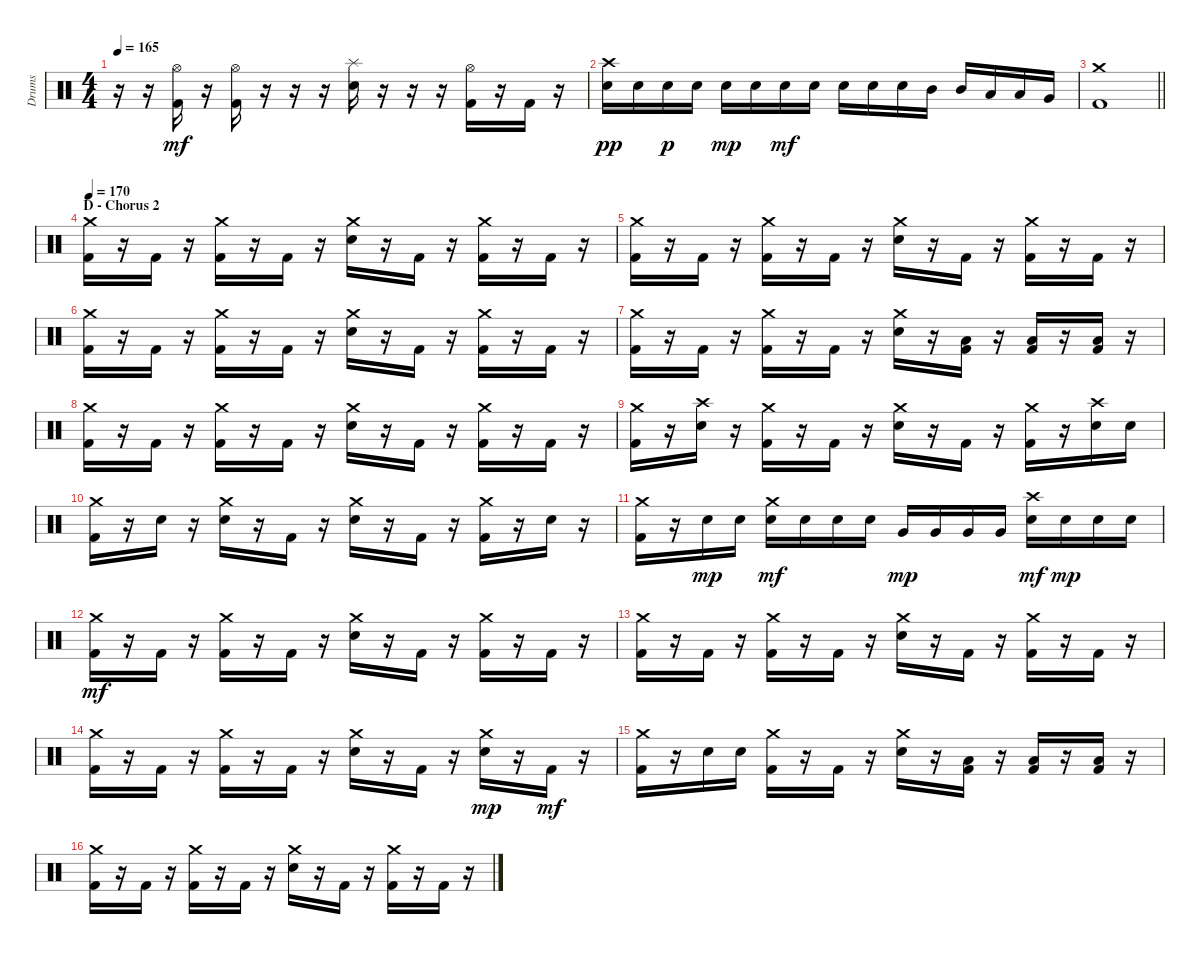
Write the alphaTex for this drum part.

\track ("Drums" "Drums") {instrument percussion}
\staff {score}
\articulation defaults
\ts (4 4)
\tempo 165
\clef neutral
\ks c
r.16{dy mf} r.16 ("Hi-Hat (open)" "Kick (hit) 2").16 r.16 ("Hi-Hat (open)" "Kick (hit) 2").16 r.16 r.16 r.16 ("Splash (hit)" "Electric Snare (hit)").16 r.16 r.16 r.16 ("Hi-Hat (open)" "Kick (hit) 2").16 r.16 "Kick (hit) 2".16 r.16 |
("Crash high (hit)" "Electric Snare (hit)").16{dy pp} "Electric Snare (hit)".16 "Electric Snare (hit)".16{dy p} "Electric Snare (hit)".16 "Electric Snare (hit)".16{dy mp} "Electric Snare (hit)".16 "Electric Snare (hit)".16{dy mf} "Electric Snare (hit)".16 "Electric Snare (hit)".16 "Electric Snare (hit)".16 "Electric Snare (hit)".16 "Mid Tom (hit)".16 "Mid Tom (hit)".16 "Low Tom (hit)".16 "Low Tom (hit)".16 "Very Low Tom (hit)".16 |
\barLineRight lightlight
("Crash medium (hit)" "Kick (hit) 2").1 |
\section ("" "D - Chorus 2")
\tempo 170
("Crash medium (hit)" "Kick (hit) 2").16 r.16 "Kick (hit) 2".16 r.16 ("Crash medium (hit)" "Kick (hit) 2").16 r.16 "Kick (hit) 2".16 r.16 ("Crash medium (hit)" "Electric Snare (hit)").16 r.16 "Kick (hit) 2".16 r.16 ("Crash medium (hit)" "Kick (hit) 2").16 r.16 "Kick (hit) 2".16 r.16 |
("Crash medium (hit)" "Kick (hit) 2").16 r.16 "Kick (hit) 2".16 r.16 ("Crash medium (hit)" "Kick (hit) 2").16 r.16 "Kick (hit) 2".16 r.16 ("Crash medium (hit)" "Electric Snare (hit)").16 r.16 "Kick (hit) 2".16 r.16 ("Crash medium (hit)" "Kick (hit) 2").16 r.16 "Kick (hit) 2".16 r.16 |
("Crash medium (hit)" "Kick (hit) 2").16 r.16 "Kick (hit) 2".16 r.16 ("Crash medium (hit)" "Kick (hit) 2").16 r.16 "Kick (hit) 2".16 r.16 ("Crash medium (hit)" "Electric Snare (hit)").16 r.16 "Kick (hit) 2".16 r.16 ("Crash medium (hit)" "Kick (hit) 2").16 r.16 "Kick (hit) 2".16 r.16 |
("Crash medium (hit)" "Kick (hit) 2").16 r.16 "Kick (hit) 2".16 r.16 ("Crash medium (hit)" "Kick (hit) 2").16 r.16 "Kick (hit) 2".16 r.16 ("Crash medium (hit)" "Electric Snare (hit)").16 r.16 ("Low Floor Tom (hit)" "Kick (hit) 2").16 r.16 ("Low Floor Tom (hit)" "Kick (hit) 2").16 r.16 ("Low Floor Tom (hit)" "Kick (hit) 2").16 r.16 |
("Crash medium (hit)" "Kick (hit) 2").16 r.16 "Kick (hit) 2".16 r.16 ("Crash medium (hit)" "Kick (hit) 2").16 r.16 "Kick (hit) 2".16 r.16 ("Crash medium (hit)" "Electric Snare (hit)").16 r.16 "Kick (hit) 2".16 r.16 ("Crash medium (hit)" "Kick (hit) 2").16 r.16 "Kick (hit) 2".16 r.16 |
("Crash medium (hit)" "Kick (hit) 2").16 r.16 ("Crash high (hit)" "Electric Snare (hit)").16 r.16 ("Crash medium (hit)" "Kick (hit) 2").16 r.16 "Kick (hit) 2".16 r.16 ("Crash medium (hit)" "Electric Snare (hit)").16 r.16 "Kick (hit) 2".16 r.16 ("Crash medium (hit)" "Kick (hit) 2").16 r.16 ("Crash high (hit)" "Electric Snare (hit)").16 "Electric Snare (hit)".16 |
("Crash medium (hit)" "Kick (hit) 2").16 r.16 "Electric Snare (hit)".16 r.16 ("Crash medium (hit)" "Electric Snare (hit)").16 r.16 "Kick (hit) 2".16 r.16 ("Crash medium (hit)" "Electric Snare (hit)").16 r.16 "Kick (hit) 2".16 r.16 ("Crash medium (hit)" "Kick (hit) 2").16 r.16 "Electric Snare (hit)".16 r.16 |
("Crash medium (hit)" "Kick (hit) 2").16 r.16 "Electric Snare (hit)".16{dy mp} "Electric Snare (hit)".16 ("Crash medium (hit)" "Electric Snare (hit)").16{dy mf} "Electric Snare (hit)".16 "Electric Snare (hit)".16 "Electric Snare (hit)".16 "Very Low Tom (hit)".16{dy mp} "Very Low Tom (hit)".16 "Very Low Tom (hit)".16 "Very Low Tom (hit)".16 ("Crash high (hit)" "Electric Snare (hit)").16{dy mf} "Electric Snare (hit)".16{dy mp} "Electric Snare (hit)".16 "Electric Snare (hit)".16 |
("Crash medium (hit)" "Kick (hit) 2").16{dy mf} r.16 "Kick (hit) 2".16 r.16 ("Crash medium (hit)" "Kick (hit) 2").16 r.16 "Kick (hit) 2".16 r.16 ("Crash medium (hit)" "Electric Snare (hit)").16 r.16 "Kick (hit) 2".16 r.16 ("Crash medium (hit)" "Kick (hit) 2").16 r.16 "Kick (hit) 2".16 r.16 |
("Crash medium (hit)" "Kick (hit) 2").16 r.16 "Kick (hit) 2".16 r.16 ("Crash medium (hit)" "Kick (hit) 2").16 r.16 "Kick (hit) 2".16 r.16 ("Crash medium (hit)" "Electric Snare (hit)").16 r.16 "Kick (hit) 2".16 r.16 ("Crash medium (hit)" "Kick (hit) 2").16 r.16 "Kick (hit) 2".16 r.16 |
("Crash medium (hit)" "Kick (hit) 2").16 r.16 "Kick (hit) 2".16 r.16 ("Crash medium (hit)" "Kick (hit) 2").16 r.16 "Kick (hit) 2".16 r.16 ("Crash medium (hit)" "Electric Snare (hit)").16 r.16 "Kick (hit) 2".16 r.16 ("Crash medium (hit)" "Electric Snare (hit)").16{dy mp} r.16 "Kick (hit) 2".16{dy mf} r.16 |
("Crash medium (hit)" "Kick (hit) 2").16 r.16 "Electric Snare (hit)".16 "Electric Snare (hit)".16 ("Crash medium (hit)" "Kick (hit) 2").16 r.16 "Kick (hit) 2".16 r.16 ("Crash medium (hit)" "Electric Snare (hit)").16 r.16 ("Low Floor Tom (hit)" "Kick (hit) 2").16 r.16 ("Low Floor Tom (hit)" "Kick (hit) 2").16 r.16 ("Low Floor Tom (hit)" "Kick (hit) 2").16 r.16 |
("Crash medium (hit)" "Kick (hit) 2").16 r.16 "Kick (hit) 2".16 r.16 ("Crash medium (hit)" "Kick (hit) 2").16 r.16 "Kick (hit) 2".16 r.16 ("Crash medium (hit)" "Electric Snare (hit)").16 r.16 "Kick (hit) 2".16 r.16 ("Crash medium (hit)" "Kick (hit) 2").16 r.16 "Kick (hit) 2".16 r.16
